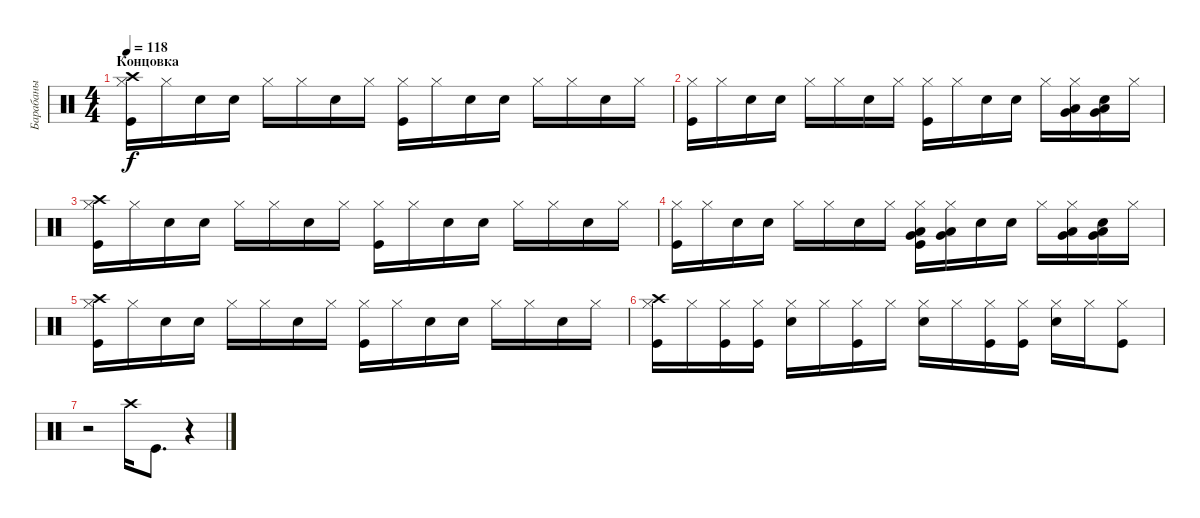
\track ("Барабаны" "Барабаны") {instrument percussion}
\staff {score}
\articulation defaults
\ts (4 4)
\section ("" "Концовка")
\tempo 118
\clef neutral
\ks c
("Kick (hit)" "Hi-Hat (closed)" "Crash high (hit)").16{dy f} "Hi-Hat (closed)".16 "Snare (hit) 2".16 "Snare (hit) 2".16 "Hi-Hat (closed)".16 "Hi-Hat (closed)".16 "Snare (hit) 2".16 "Hi-Hat (closed)".16 ("Kick (hit)" "Hi-Hat (closed)").16 "Hi-Hat (closed)".16 "Snare (hit) 2".16 "Snare (hit) 2".16 "Hi-Hat (closed)".16 "Hi-Hat (closed)".16 "Snare (hit) 2".16 "Hi-Hat (closed)".16 |
("Kick (hit)" "Hi-Hat (closed)").16 "Hi-Hat (closed)".16 "Snare (hit) 2".16 "Snare (hit) 2".16 "Hi-Hat (closed)".16 "Hi-Hat (closed)".16 "Snare (hit) 2".16 "Hi-Hat (closed)".16 ("Kick (hit)" "Hi-Hat (closed)").16 "Hi-Hat (closed)".16 "Snare (hit) 2".16 "Snare (hit) 2".16 "Hi-Hat (closed)".16 ("Hi-Hat (closed)" "Very Low Tom (hit)" "Low Tom (hit)").16 ("Snare (hit) 2" "Very Low Tom (hit)" "Low Tom (hit)").16 "Hi-Hat (closed)".16 |
("Kick (hit)" "Hi-Hat (closed)" "Crash high (hit)").16 "Hi-Hat (closed)".16 "Snare (hit) 2".16 "Snare (hit) 2".16 "Hi-Hat (closed)".16 "Hi-Hat (closed)".16 "Snare (hit) 2".16 "Hi-Hat (closed)".16 ("Kick (hit)" "Hi-Hat (closed)").16 "Hi-Hat (closed)".16 "Snare (hit) 2".16 "Snare (hit) 2".16 "Hi-Hat (closed)".16 "Hi-Hat (closed)".16 "Snare (hit) 2".16 "Hi-Hat (closed)".16 |
("Kick (hit)" "Hi-Hat (closed)").16 "Hi-Hat (closed)".16 "Snare (hit) 2".16 "Snare (hit) 2".16 "Hi-Hat (closed)".16 "Hi-Hat (closed)".16 "Snare (hit) 2".16 "Hi-Hat (closed)".16 ("Kick (hit)" "Hi-Hat (closed)" "Very Low Tom (hit)" "Low Tom (hit)").16 ("Hi-Hat (closed)" "Very Low Tom (hit)" "Low Tom (hit)").16 "Snare (hit) 2".16 "Snare (hit) 2".16 "Hi-Hat (closed)".16 ("Hi-Hat (closed)" "Very Low Tom (hit)" "Low Tom (hit)").16 ("Snare (hit) 2" "Very Low Tom (hit)" "Low Tom (hit)").16 "Hi-Hat (closed)".16 |
("Kick (hit)" "Hi-Hat (closed)" "Crash high (hit)").16 "Hi-Hat (closed)".16 "Snare (hit) 2".16 "Snare (hit) 2".16 "Hi-Hat (closed)".16 "Hi-Hat (closed)".16 "Snare (hit) 2".16 "Hi-Hat (closed)".16 ("Kick (hit)" "Hi-Hat (closed)").16 "Hi-Hat (closed)".16 "Snare (hit) 2".16 "Snare (hit) 2".16 "Hi-Hat (closed)".16 "Hi-Hat (closed)".16 "Snare (hit) 2".16 "Hi-Hat (closed)".16 |
("Kick (hit)" "Hi-Hat (closed)" "Crash high (hit)").16 "Hi-Hat (closed)".16 ("Kick (hit)" "Hi-Hat (closed)").16 ("Kick (hit)" "Hi-Hat (closed)").16 ("Snare (hit) 2" "Hi-Hat (closed)").16 "Hi-Hat (closed)".16 ("Kick (hit)" "Hi-Hat (closed)").16 "Hi-Hat (closed)".16 ("Snare (hit) 2" "Hi-Hat (closed)").16 "Hi-Hat (closed)".16 ("Kick (hit)" "Hi-Hat (closed)").16 ("Kick (hit)" "Hi-Hat (closed)").16 ("Snare (hit) 2" "Hi-Hat (closed)").16 "Hi-Hat (closed)".16 ("Kick (hit)" "Hi-Hat (closed)").8 |
r.2 "Crash high (hit)".16 "Kick (hit)".8{d} r.4
